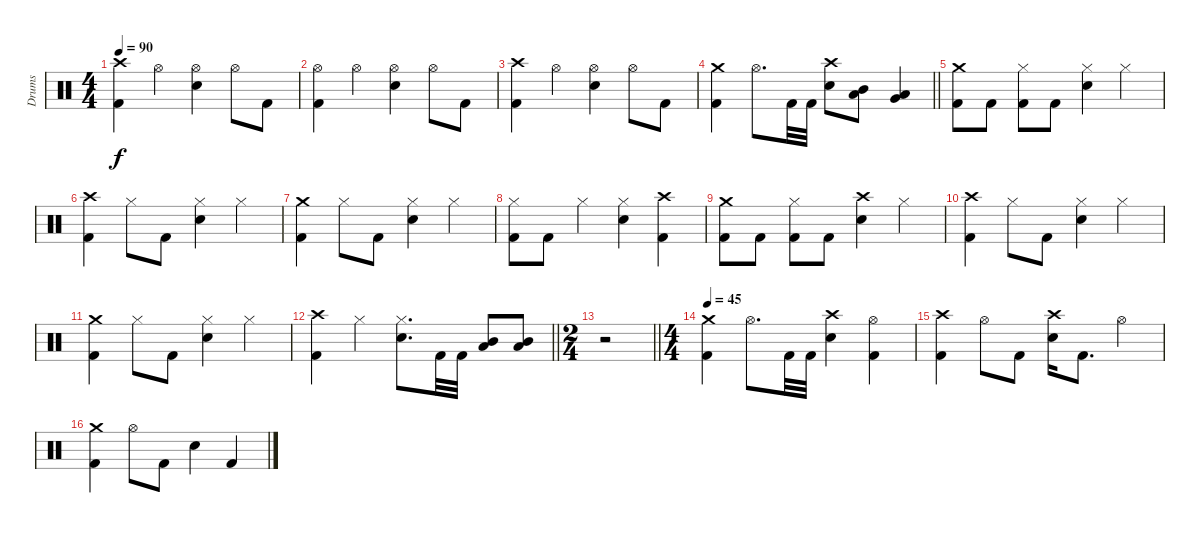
\track ("Drums" "Drums") {instrument percussion}
\staff {score}
\articulation defaults
\ts (4 4)
\tempo 90
\clef neutral
\ks c
("Crash high (hit)" "Kick (hit) 2").4{dy f} "Hi-Hat (open)".4 ("Hi-Hat (open)" "Snare (hit) 2").4 "Hi-Hat (open)".8 "Kick (hit) 2".8 |
("Hi-Hat (open)" "Kick (hit) 2").4 "Hi-Hat (open)".4 ("Hi-Hat (open)" "Snare (hit) 2").4 "Hi-Hat (open)".8 "Kick (hit) 2".8 |
("Crash high (hit)" "Kick (hit) 2").4 "Hi-Hat (open)".4 ("Hi-Hat (open)" "Snare (hit) 2").4 "Hi-Hat (open)".8 "Kick (hit) 2".8 |
\barLineRight lightlight
("Crash medium (hit)" "Kick (hit) 2").4 "Hi-Hat (open)".8{d} "Kick (hit) 2".32 "Kick (hit) 2".32 ("Crash high (hit)" "Snare (hit) 2").8 ("Mid Tom (hit)" "Low Tom (hit)").8 ("Low Tom (hit)" "Very Low Tom (hit)").4 |
("Crash medium (hit)" "Kick (hit) 2").8 "Kick (hit) 2".8 ("Hi-Hat (closed)" "Kick (hit) 2").8 "Kick (hit) 2".8 ("Hi-Hat (closed)" "Snare (hit) 2").4 "Hi-Hat (closed)".4 |
("Crash high (hit)" "Kick (hit) 2").4 "Hi-Hat (closed)".8 "Kick (hit) 2".8 ("Hi-Hat (closed)" "Snare (hit) 2").4 "Hi-Hat (closed)".4 |
("Crash medium (hit)" "Kick (hit) 2").4 "Hi-Hat (closed)".8 "Kick (hit) 2".8 ("Hi-Hat (closed)" "Snare (hit) 2").4 "Hi-Hat (closed)".4 |
("Hi-Hat (closed)" "Kick (hit) 2").8 "Kick (hit) 2".8 "Hi-Hat (closed)".4 ("Hi-Hat (closed)" "Snare (hit) 2").4 ("Crash high (hit)" "Kick (hit) 2").4 |
("Crash medium (hit)" "Kick (hit) 2").8 "Kick (hit) 2".8 ("Hi-Hat (closed)" "Kick (hit) 2").8 "Kick (hit) 2".8 ("Crash high (hit)" "Snare (hit) 2").4 "Hi-Hat (closed)".4 |
("Crash high (hit)" "Kick (hit) 2").4 "Hi-Hat (closed)".8 "Kick (hit) 2".8 ("Hi-Hat (closed)" "Snare (hit) 2").4 "Hi-Hat (closed)".4 |
("Crash medium (hit)" "Kick (hit) 2").4 "Hi-Hat (closed)".8 "Kick (hit) 2".8 ("Hi-Hat (closed)" "Snare (hit) 2").4 "Hi-Hat (closed)".4 |
\barLineRight lightlight
("Crash high (hit)" "Kick (hit) 2").4 "Hi-Hat (closed)".4 ("Hi-Hat (closed)" "Snare (hit) 2").8{d} "Kick (hit) 2".32 "Kick (hit) 2".32 ("Mid Tom (hit)" "Low Tom (hit)").8 ("Mid Tom (hit)" "Low Tom (hit)").8 |
\ts (2 4)
\barLineRight lightlight
r.2 |
\ts (4 4)
\tempo 45
("Crash medium (hit)" "Kick (hit) 2").4 "Hi-Hat (open)".8{d} "Kick (hit) 2".32 "Kick (hit) 2".32 ("Crash high (hit)" "Snare (hit) 2").4 ("Hi-Hat (open)" "Kick (hit) 2").4 |
("Crash high (hit)" "Kick (hit) 2").4 "Hi-Hat (open)".8 "Kick (hit) 2".8 ("Crash high (hit)" "Snare (hit) 2").16 "Kick (hit) 2".8{d} "Hi-Hat (open)".4 |
("Crash medium (hit)" "Kick (hit) 2").4 "Hi-Hat (open)".8 "Kick (hit) 2".8 "Snare (hit) 2".4 "Kick (hit) 2".4
